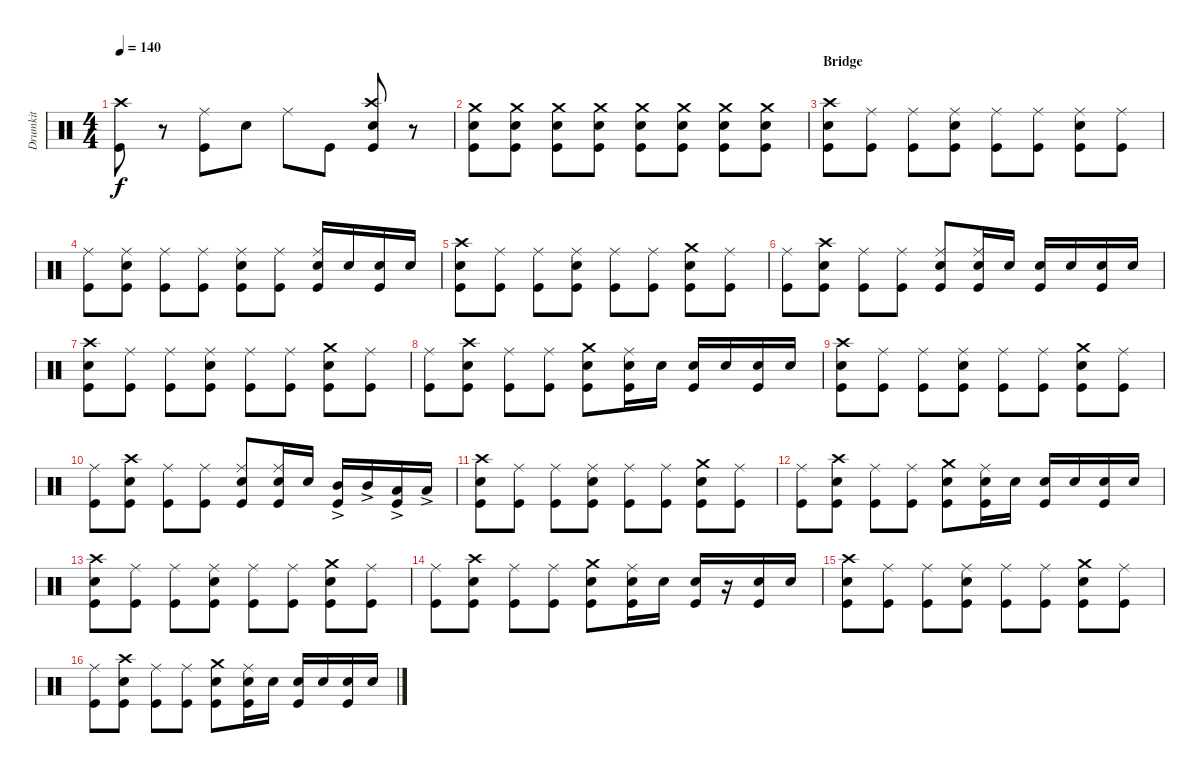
\track ("Drumkit" "Drumkit") {instrument percussion}
\staff {score}
\articulation defaults
\ts (4 4)
\tempo 140
\clef neutral
\ks c
("Kick (hit)" "Crash high (hit)").8{dy f} r.8 ("Kick (hit)" "Ride (middle)").8 "Snare (hit) 2".8 "Ride (middle)".8 "Kick (hit)".8 ("Kick (hit)" "Crash high (hit)" "Snare (hit) 2").8 r.8 |
("Kick (hit)" "Crash medium (hit)" "Snare (hit) 2").8 ("Kick (hit)" "Crash medium (hit)" "Snare (hit) 2").8 ("Kick (hit)" "Crash medium (hit)" "Snare (hit) 2").8 ("Kick (hit)" "Crash medium (hit)" "Snare (hit) 2").8 ("Kick (hit)" "Crash medium (hit)" "Snare (hit) 2").8 ("Kick (hit)" "Crash medium (hit)" "Snare (hit) 2").8 ("Kick (hit)" "Crash medium (hit)" "Snare (hit) 2").8 ("Kick (hit)" "Crash medium (hit)" "Snare (hit) 2").8 |
\section ("" "Bridge")
("Kick (hit)" "Snare (hit) 2" "Crash high (hit)").8 ("Kick (hit)" "Ride (middle)").8 ("Kick (hit)" "Ride (middle)").8 ("Kick (hit)" "Snare (hit) 2" "Ride (middle)").8 ("Kick (hit)" "Ride (middle)").8 ("Kick (hit)" "Ride (middle)").8 ("Kick (hit)" "Snare (hit) 2" "Ride (middle)").8 ("Kick (hit)" "Ride (middle)").8 |
("Kick (hit)" "Ride (middle)").8 ("Kick (hit)" "Snare (hit) 2" "Ride (middle)").8 ("Kick (hit)" "Ride (middle)").8 ("Kick (hit)" "Ride (middle)").8 ("Kick (hit)" "Snare (hit) 2" "Ride (middle)").8 ("Kick (hit)" "Ride (middle)").8 ("Kick (hit)" "Snare (hit) 2" "Ride (middle)").16 "Snare (hit) 2".16 ("Kick (hit)" "Snare (hit) 2").16 "Snare (hit) 2".16 |
("Kick (hit)" "Snare (hit) 2" "Crash high (hit)").8 ("Kick (hit)" "Ride (middle)").8 ("Kick (hit)" "Ride (middle)").8 ("Kick (hit)" "Snare (hit) 2" "Ride (middle)").8 ("Kick (hit)" "Ride (middle)").8 ("Kick (hit)" "Ride (middle)").8 ("Kick (hit)" "Snare (hit) 2" "Crash medium (hit)").8 ("Kick (hit)" "Ride (middle)").8 |
("Kick (hit)" "Ride (middle)").8 ("Kick (hit)" "Snare (hit) 2" "Crash high (hit)").8 ("Kick (hit)" "Ride (middle)").8 ("Kick (hit)" "Ride (middle)").8 ("Kick (hit)" "Snare (hit) 2" "Ride (middle)").8 ("Kick (hit)" "Ride (middle)" "Snare (hit) 2").16 "Snare (hit) 2".16 ("Snare (hit) 2" "Kick (hit)").16 "Snare (hit) 2".16 ("Snare (hit) 2" "Kick (hit)").16 "Snare (hit) 2".16 |
("Kick (hit)" "Snare (hit) 2" "Crash high (hit)").8 ("Kick (hit)" "Ride (middle)").8 ("Kick (hit)" "Ride (middle)").8 ("Kick (hit)" "Snare (hit) 2" "Ride (middle)").8 ("Kick (hit)" "Ride (middle)").8 ("Kick (hit)" "Ride (middle)").8 ("Kick (hit)" "Snare (hit) 2" "Crash medium (hit)").8 ("Kick (hit)" "Ride (middle)").8 |
("Kick (hit)" "Ride (middle)").8 ("Kick (hit)" "Snare (hit) 2" "Crash high (hit)").8 ("Kick (hit)" "Ride (middle)").8 ("Kick (hit)" "Ride (middle)").8 ("Kick (hit)" "Snare (hit) 2" "Crash medium (hit)").8 ("Kick (hit)" "Ride (middle)" "Snare (hit) 2").16 "Snare (hit) 2".16 ("Snare (hit) 2" "Kick (hit)").16 "Snare (hit) 2".16 ("Snare (hit) 2" "Kick (hit)").16 "Snare (hit) 2".16 |
("Kick (hit)" "Snare (hit) 2" "Crash high (hit)").8 ("Kick (hit)" "Ride (middle)").8 ("Kick (hit)" "Ride (middle)").8 ("Kick (hit)" "Snare (hit) 2" "Ride (middle)").8 ("Kick (hit)" "Ride (middle)").8 ("Kick (hit)" "Ride (middle)").8 ("Kick (hit)" "Snare (hit) 2" "Crash medium (hit)").8 ("Kick (hit)" "Ride (middle)").8 |
("Kick (hit)" "Ride (middle)").8 ("Kick (hit)" "Snare (hit) 2" "Crash high (hit)").8 ("Kick (hit)" "Ride (middle)").8 ("Kick (hit)" "Ride (middle)").8 ("Kick (hit)" "Snare (hit) 2" "Ride (middle)").8 ("Kick (hit)" "Ride (middle)" "Snare (hit) 2").16 "Snare (hit) 2".16 ("Mid Tom (hit)"{ac} "Kick (hit)").16 "Mid Tom (hit)"{ac}.16 ("Low Tom (hit)"{ac} "Kick (hit)").16 "Low Tom (hit)"{ac}.16 |
("Kick (hit)" "Snare (hit) 2" "Crash high (hit)").8 ("Kick (hit)" "Ride (middle)").8 ("Kick (hit)" "Ride (middle)").8 ("Kick (hit)" "Snare (hit) 2" "Ride (middle)").8 ("Kick (hit)" "Ride (middle)").8 ("Kick (hit)" "Ride (middle)").8 ("Kick (hit)" "Snare (hit) 2" "Crash medium (hit)").8 ("Kick (hit)" "Ride (middle)").8 |
("Kick (hit)" "Ride (middle)").8 ("Kick (hit)" "Snare (hit) 2" "Crash high (hit)").8 ("Kick (hit)" "Ride (middle)").8 ("Kick (hit)" "Ride (middle)").8 ("Kick (hit)" "Snare (hit) 2" "Crash medium (hit)").8 ("Kick (hit)" "Ride (middle)" "Snare (hit) 2").16 "Snare (hit) 2".16 ("Snare (hit) 2" "Kick (hit)").16 "Snare (hit) 2".16 ("Snare (hit) 2" "Kick (hit)").16 "Snare (hit) 2".16 |
("Kick (hit)" "Snare (hit) 2" "Crash high (hit)").8 ("Kick (hit)" "Ride (middle)").8 ("Kick (hit)" "Ride (middle)").8 ("Kick (hit)" "Snare (hit) 2" "Ride (middle)").8 ("Kick (hit)" "Ride (middle)").8 ("Kick (hit)" "Ride (middle)").8 ("Kick (hit)" "Snare (hit) 2" "Crash medium (hit)").8 ("Kick (hit)" "Ride (middle)").8 |
("Kick (hit)" "Ride (middle)").8 ("Kick (hit)" "Snare (hit) 2" "Crash high (hit)").8 ("Kick (hit)" "Ride (middle)").8 ("Kick (hit)" "Ride (middle)").8 ("Kick (hit)" "Snare (hit) 2" "Crash medium (hit)").8 ("Kick (hit)" "Ride (middle)" "Snare (hit) 2").16 "Snare (hit) 2".16 ("Snare (hit) 2" "Kick (hit)").16 r.16 ("Snare (hit) 2" "Kick (hit)").16 "Snare (hit) 2".16 |
("Kick (hit)" "Snare (hit) 2" "Crash high (hit)").8 ("Kick (hit)" "Ride (middle)").8 ("Kick (hit)" "Ride (middle)").8 ("Kick (hit)" "Snare (hit) 2" "Ride (middle)").8 ("Kick (hit)" "Ride (middle)").8 ("Kick (hit)" "Ride (middle)").8 ("Kick (hit)" "Snare (hit) 2" "Crash medium (hit)").8 ("Kick (hit)" "Ride (middle)").8 |
("Kick (hit)" "Ride (middle)").8 ("Kick (hit)" "Snare (hit) 2" "Crash high (hit)").8 ("Kick (hit)" "Ride (middle)").8 ("Kick (hit)" "Ride (middle)").8 ("Kick (hit)" "Snare (hit) 2" "Crash medium (hit)").8 ("Kick (hit)" "Ride (middle)" "Snare (hit) 2").16 "Snare (hit) 2".16 ("Snare (hit) 2" "Kick (hit)").16 "Snare (hit) 2".16 ("Snare (hit) 2" "Kick (hit)").16 "Snare (hit) 2".16
